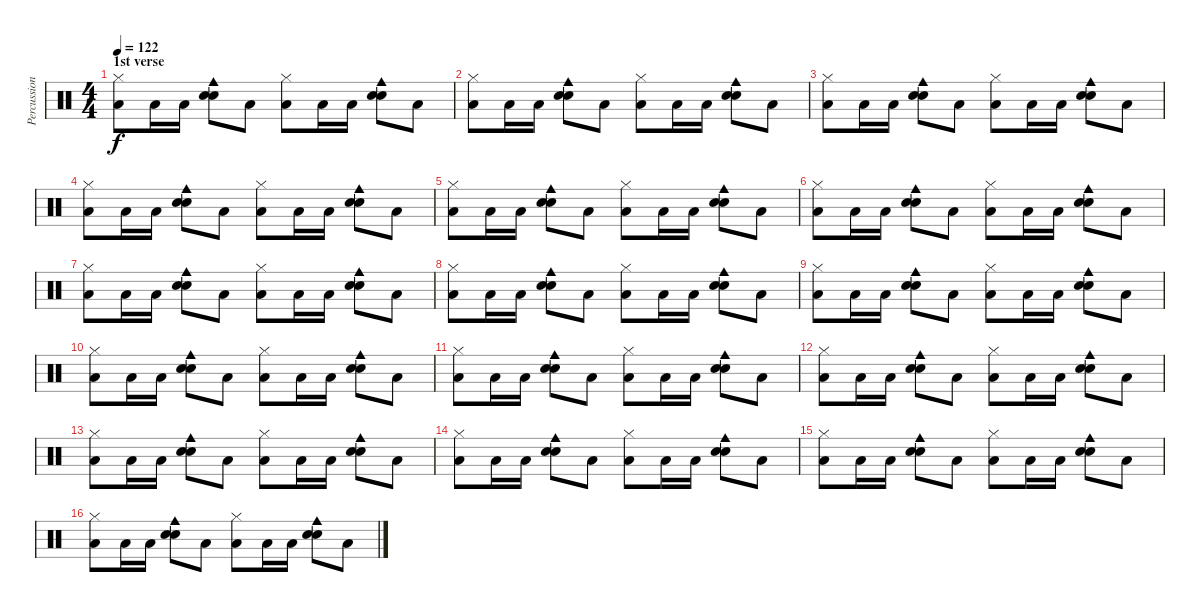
\track ("Percussion" "Percussion") {instrument percussion}
\staff {score}
\articulation defaults
\ts (4 4)
\section ("" "1st verse")
\tempo 122
\clef neutral
\ks c
("Hi-Hat (closed)" "Low Tom (hit)").8{dy f} "Low Tom (hit)".16 "Low Tom (hit)".16 ("Snare (hit) 2" "Electric Snare (hit)" "Cowbell medium (hit)").8 "Low Tom (hit)".8 ("Hi-Hat (closed)" "Low Tom (hit)").8 "Low Tom (hit)".16 "Low Tom (hit)".16 ("Snare (hit) 2" "Electric Snare (hit)" "Cowbell medium (hit)").8 "Low Tom (hit)".8 |
("Hi-Hat (closed)" "Low Tom (hit)").8 "Low Tom (hit)".16 "Low Tom (hit)".16 ("Snare (hit) 2" "Electric Snare (hit)" "Cowbell medium (hit)").8 "Low Tom (hit)".8 ("Hi-Hat (closed)" "Low Tom (hit)").8 "Low Tom (hit)".16 "Low Tom (hit)".16 ("Snare (hit) 2" "Electric Snare (hit)" "Cowbell medium (hit)").8 "Low Tom (hit)".8 |
("Hi-Hat (closed)" "Low Tom (hit)").8 "Low Tom (hit)".16 "Low Tom (hit)".16 ("Snare (hit) 2" "Electric Snare (hit)" "Cowbell medium (hit)").8 "Low Tom (hit)".8 ("Hi-Hat (closed)" "Low Tom (hit)").8 "Low Tom (hit)".16 "Low Tom (hit)".16 ("Snare (hit) 2" "Electric Snare (hit)" "Cowbell medium (hit)").8 "Low Tom (hit)".8 |
("Hi-Hat (closed)" "Low Tom (hit)").8 "Low Tom (hit)".16 "Low Tom (hit)".16 ("Snare (hit) 2" "Electric Snare (hit)" "Cowbell medium (hit)").8 "Low Tom (hit)".8 ("Hi-Hat (closed)" "Low Tom (hit)").8 "Low Tom (hit)".16 "Low Tom (hit)".16 ("Snare (hit) 2" "Electric Snare (hit)" "Cowbell medium (hit)").8 "Low Tom (hit)".8 |
("Hi-Hat (closed)" "Low Tom (hit)").8 "Low Tom (hit)".16 "Low Tom (hit)".16 ("Snare (hit) 2" "Electric Snare (hit)" "Cowbell medium (hit)").8 "Low Tom (hit)".8 ("Hi-Hat (closed)" "Low Tom (hit)").8 "Low Tom (hit)".16 "Low Tom (hit)".16 ("Snare (hit) 2" "Electric Snare (hit)" "Cowbell medium (hit)").8 "Low Tom (hit)".8 |
("Hi-Hat (closed)" "Low Tom (hit)").8 "Low Tom (hit)".16 "Low Tom (hit)".16 ("Snare (hit) 2" "Electric Snare (hit)" "Cowbell medium (hit)").8 "Low Tom (hit)".8 ("Hi-Hat (closed)" "Low Tom (hit)").8 "Low Tom (hit)".16 "Low Tom (hit)".16 ("Snare (hit) 2" "Electric Snare (hit)" "Cowbell medium (hit)").8 "Low Tom (hit)".8 |
("Hi-Hat (closed)" "Low Tom (hit)").8 "Low Tom (hit)".16 "Low Tom (hit)".16 ("Snare (hit) 2" "Electric Snare (hit)" "Cowbell medium (hit)").8 "Low Tom (hit)".8 ("Hi-Hat (closed)" "Low Tom (hit)").8 "Low Tom (hit)".16 "Low Tom (hit)".16 ("Snare (hit) 2" "Electric Snare (hit)" "Cowbell medium (hit)").8 "Low Tom (hit)".8 |
("Hi-Hat (closed)" "Low Tom (hit)").8 "Low Tom (hit)".16 "Low Tom (hit)".16 ("Snare (hit) 2" "Electric Snare (hit)" "Cowbell medium (hit)").8 "Low Tom (hit)".8 ("Hi-Hat (closed)" "Low Tom (hit)").8 "Low Tom (hit)".16 "Low Tom (hit)".16 ("Snare (hit) 2" "Electric Snare (hit)" "Cowbell medium (hit)").8 "Low Tom (hit)".8 |
("Hi-Hat (closed)" "Low Tom (hit)").8 "Low Tom (hit)".16 "Low Tom (hit)".16 ("Snare (hit) 2" "Electric Snare (hit)" "Cowbell medium (hit)").8 "Low Tom (hit)".8 ("Hi-Hat (closed)" "Low Tom (hit)").8 "Low Tom (hit)".16 "Low Tom (hit)".16 ("Snare (hit) 2" "Electric Snare (hit)" "Cowbell medium (hit)").8 "Low Tom (hit)".8 |
("Hi-Hat (closed)" "Low Tom (hit)").8 "Low Tom (hit)".16 "Low Tom (hit)".16 ("Snare (hit) 2" "Electric Snare (hit)" "Cowbell medium (hit)").8 "Low Tom (hit)".8 ("Hi-Hat (closed)" "Low Tom (hit)").8 "Low Tom (hit)".16 "Low Tom (hit)".16 ("Snare (hit) 2" "Electric Snare (hit)" "Cowbell medium (hit)").8 "Low Tom (hit)".8 |
("Hi-Hat (closed)" "Low Tom (hit)").8 "Low Tom (hit)".16 "Low Tom (hit)".16 ("Snare (hit) 2" "Electric Snare (hit)" "Cowbell medium (hit)").8 "Low Tom (hit)".8 ("Hi-Hat (closed)" "Low Tom (hit)").8 "Low Tom (hit)".16 "Low Tom (hit)".16 ("Snare (hit) 2" "Electric Snare (hit)" "Cowbell medium (hit)").8 "Low Tom (hit)".8 |
("Hi-Hat (closed)" "Low Tom (hit)").8 "Low Tom (hit)".16 "Low Tom (hit)".16 ("Snare (hit) 2" "Electric Snare (hit)" "Cowbell medium (hit)").8 "Low Tom (hit)".8 ("Hi-Hat (closed)" "Low Tom (hit)").8 "Low Tom (hit)".16 "Low Tom (hit)".16 ("Snare (hit) 2" "Electric Snare (hit)" "Cowbell medium (hit)").8 "Low Tom (hit)".8 |
("Hi-Hat (closed)" "Low Tom (hit)").8 "Low Tom (hit)".16 "Low Tom (hit)".16 ("Snare (hit) 2" "Electric Snare (hit)" "Cowbell medium (hit)").8 "Low Tom (hit)".8 ("Hi-Hat (closed)" "Low Tom (hit)").8 "Low Tom (hit)".16 "Low Tom (hit)".16 ("Snare (hit) 2" "Electric Snare (hit)" "Cowbell medium (hit)").8 "Low Tom (hit)".8 |
("Hi-Hat (closed)" "Low Tom (hit)").8 "Low Tom (hit)".16 "Low Tom (hit)".16 ("Snare (hit) 2" "Electric Snare (hit)" "Cowbell medium (hit)").8 "Low Tom (hit)".8 ("Hi-Hat (closed)" "Low Tom (hit)").8 "Low Tom (hit)".16 "Low Tom (hit)".16 ("Snare (hit) 2" "Electric Snare (hit)" "Cowbell medium (hit)").8 "Low Tom (hit)".8 |
("Hi-Hat (closed)" "Low Tom (hit)").8 "Low Tom (hit)".16 "Low Tom (hit)".16 ("Snare (hit) 2" "Electric Snare (hit)" "Cowbell medium (hit)").8 "Low Tom (hit)".8 ("Hi-Hat (closed)" "Low Tom (hit)").8 "Low Tom (hit)".16 "Low Tom (hit)".16 ("Snare (hit) 2" "Electric Snare (hit)" "Cowbell medium (hit)").8 "Low Tom (hit)".8 |
("Hi-Hat (closed)" "Low Tom (hit)").8 "Low Tom (hit)".16 "Low Tom (hit)".16 ("Snare (hit) 2" "Electric Snare (hit)" "Cowbell medium (hit)").8 "Low Tom (hit)".8 ("Hi-Hat (closed)" "Low Tom (hit)").8 "Low Tom (hit)".16 "Low Tom (hit)".16 ("Snare (hit) 2" "Electric Snare (hit)" "Cowbell medium (hit)").8 "Low Tom (hit)".8
